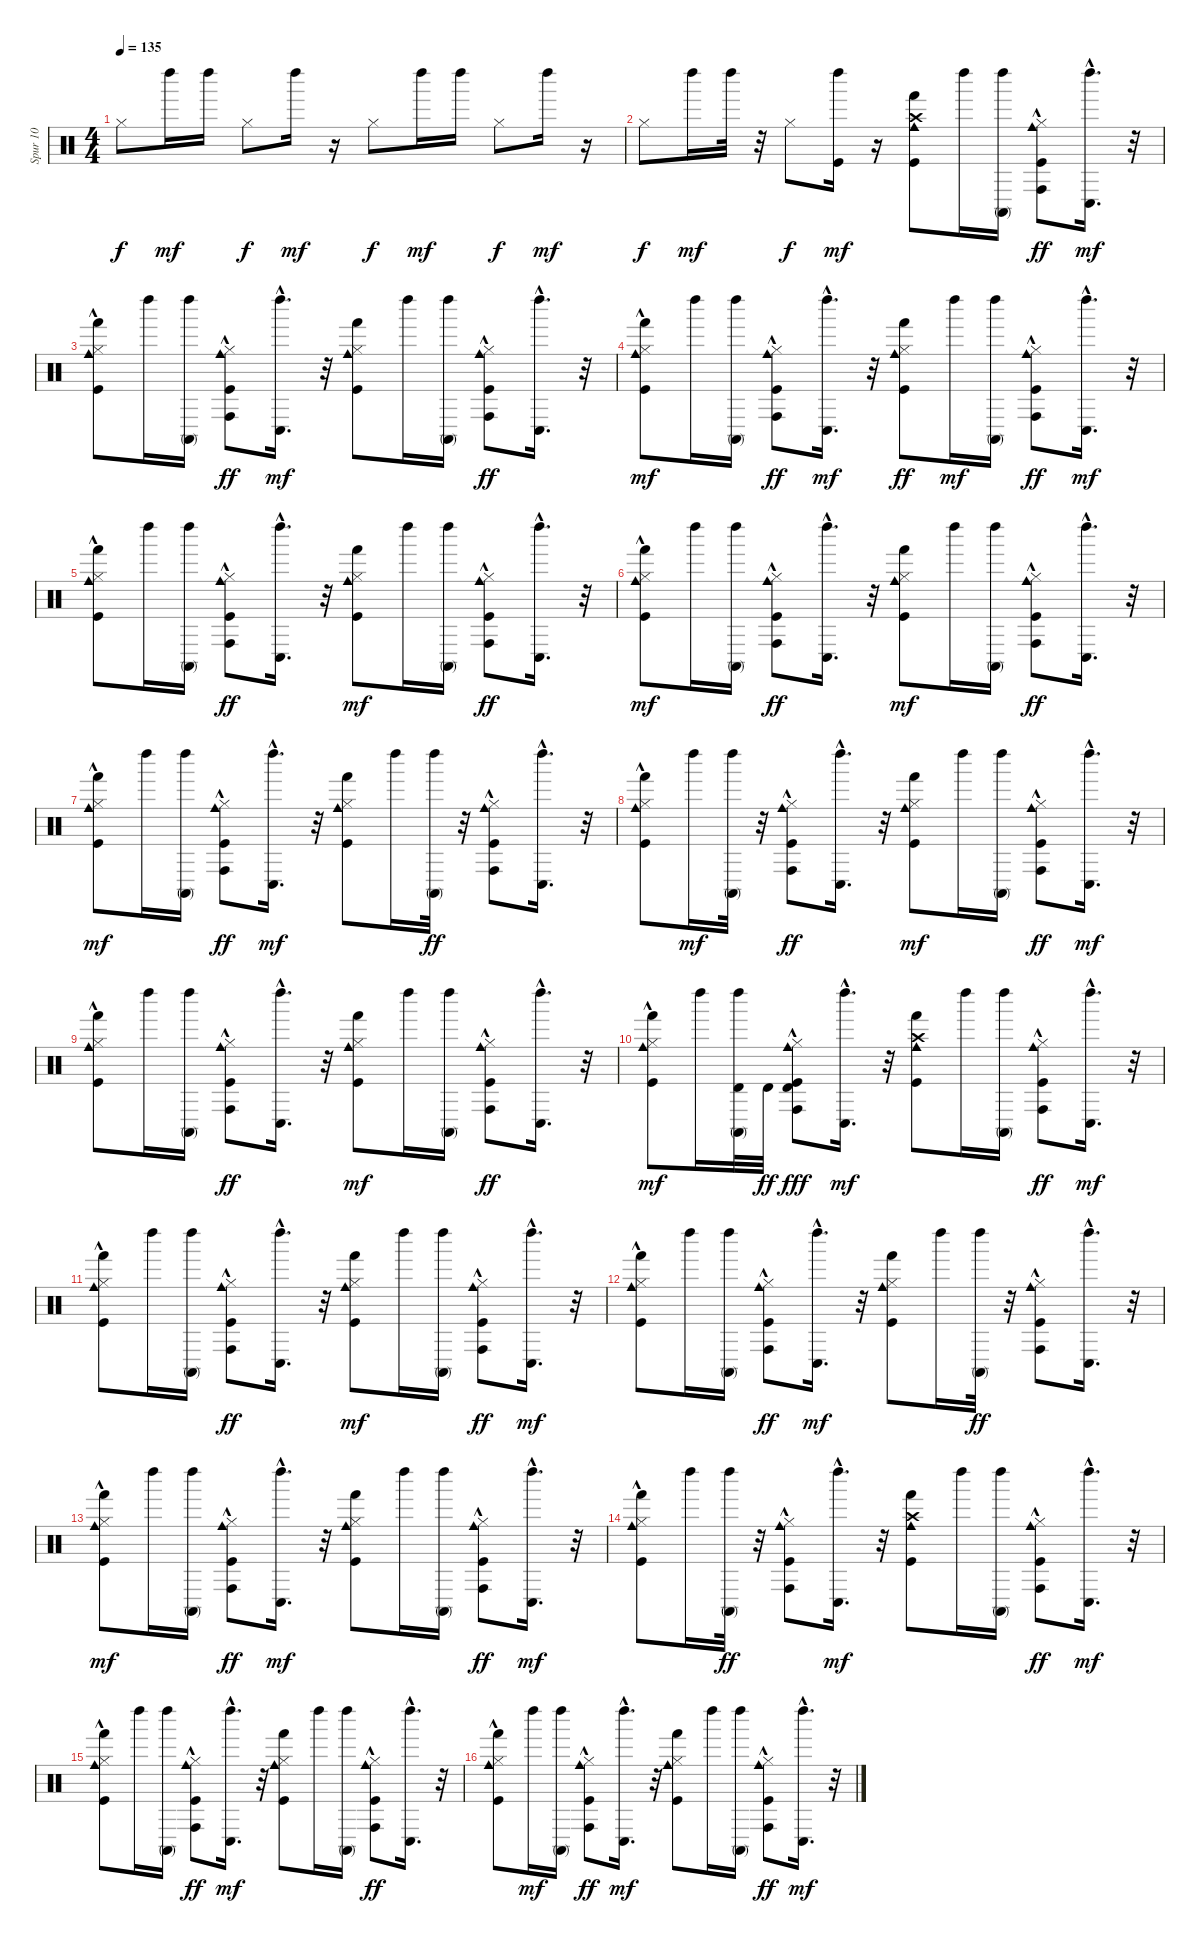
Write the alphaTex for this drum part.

\track ("Spur 10" "Spur 10") {instrument percussion}
\staff {score}
\articulation defaults
\ts (4 4)
\tempo 135
\clef neutral
\ks c "Hi-Hat (closed)".8{dy f} "Left Maraca (hit)".16{dy mf} "Left Maraca (hit)".16 "Hi-Hat (closed)".8{dy f} "Left Maraca (hit)".16{dy mf}
r.16 "Hi-Hat (closed)".8{dy f} "Left Maraca (hit)".16{dy mf} "Left Maraca (hit)".16 "Hi-Hat (closed)".8{dy f} "Left Maraca (hit)".16{dy mf} r.16 |
"Hi-Hat (closed)".8{dy f} "Left Maraca (hit)".16{dy mf} "Left Maraca (hit)".32 r.32 "Hi-Hat (closed)".8{dy f} ("Kick (hit)" "Left Maraca (hit)").16{dy mf} r.16 ("Kick (hit)" "Crash high (hit)" "Cowbell medium (hit)" "Hand (hit)").8 "Left Maraca (hit)".16 ("Conga high (mute)" "Left Maraca (hit)").16 ("Kick (hit)" "Hi-Hat (closed)" "Cowbell medium (hit)" "Conga high (hit)"{hac}).8{dy ff} ("Conga low (hit)"{hac} "Left Maraca (hit)").16{d dy mf} r.32 |
("Kick (hit)" "Hi-Hat (closed)" "Cowbell medium (hit)" "Hand (hit)"{hac}).8 "Left Maraca (hit)".16 ("Conga high (mute)" "Left Maraca (hit)").16 ("Hi-Hat (closed)" "Kick (hit)"{hac} "Cowbell medium (hit)" "Conga high (hit)"{hac}).8{dy ff} ("Conga low (hit)"{hac} "Left Maraca (hit)").16{d dy mf} r.32 ("Kick (hit)" "Hi-Hat (closed)" "Cowbell medium (hit)" "Hand (hit)").8 "Left Maraca (hit)".16 ("Conga high (mute)" "Left Maraca (hit)").16 ("Hi-Hat (closed)" "Cowbell medium (hit)" "Kick (hit)" "Conga high (hit)"{hac}).8{dy ff} ("Left Maraca (hit)" "Conga low (hit)"{hac}).16{d} r.32 |
("Kick (hit)" "Hi-Hat (closed)" "Cowbell medium (hit)" "Hand (hit)"{hac}).8{dy mf} "Left Maraca (hit)".16 ("Conga high (mute)" "Left Maraca (hit)").16 ("Kick (hit)"{hac} "Hi-Hat (closed)" "Cowbell medium (hit)" "Conga high (hit)"{hac}).8{dy ff} ("Conga low (hit)"{hac} "Left Maraca (hit)").16{d dy mf} r.32 ("Hi-Hat (closed)" "Cowbell medium (hit)" "Kick (hit)" "Hand (hit)").8{dy ff} "Left Maraca (hit)".16{dy mf} ("Conga high (mute)" "Left Maraca (hit)").16 ("Kick (hit)" "Hi-Hat (closed)" "Cowbell medium (hit)" "Conga high (hit)"{hac}).8{dy ff} ("Conga low (hit)"{hac} "Left Maraca (hit)").16{d dy mf} r.32 |
("Hi-Hat (closed)" "Kick (hit)" "Cowbell medium (hit)" "Hand (hit)"{hac}).8 "Left Maraca (hit)".16 ("Conga high (mute)" "Left Maraca (hit)").16 ("Kick (hit)"{hac} "Hi-Hat (closed)" "Cowbell medium (hit)" "Conga high (hit)"{hac}).8{dy ff} ("Left Maraca (hit)" "Conga low (hit)"{hac}).16{d} r.32 ("Kick (hit)" "Hi-Hat (closed)" "Cowbell medium (hit)" "Hand (hit)").8{dy mf} "Left Maraca (hit)".16 ("Conga high (mute)" "Left Maraca (hit)").16 ("Hi-Hat (closed)" "Kick (hit)" "Cowbell medium (hit)" "Conga high (hit)"{hac}).8{dy ff} ("Left Maraca (hit)" "Conga low (hit)"{hac}).16{d} r.32 |
("Kick (hit)" "Hi-Hat (closed)" "Cowbell medium (hit)" "Hand (hit)"{hac}).8{dy mf} "Left Maraca (hit)".16 ("Conga high (mute)" "Left Maraca (hit)").16 ("Hi-Hat (closed)" "Kick (hit)"{hac} "Cowbell medium (hit)" "Conga high (hit)"{hac}).8{dy ff} ("Left Maraca (hit)" "Conga low (hit)"{hac}).16{d} r.32 ("Hi-Hat (closed)" "Kick (hit)" "Cowbell medium (hit)" "Hand (hit)").8{dy mf} "Left Maraca (hit)".16 ("Conga high (mute)" "Left Maraca (hit)").16 ("Kick (hit)" "Hi-Hat (closed)" "Cowbell medium (hit)" "Conga high (hit)"{hac}).8{dy ff} ("Left Maraca (hit)" "Conga low (hit)"{hac}).16{d} r.32 |
("Kick (hit)" "Hi-Hat (closed)" "Cowbell medium (hit)" "Hand (hit)"{hac}).8{dy mf} "Left Maraca (hit)".16 ("Conga high (mute)" "Left Maraca (hit)").16 ("Hi-Hat (closed)" "Kick (hit)"{hac} "Cowbell medium (hit)" "Conga high (hit)"{hac}).8{dy ff} ("Conga low (hit)"{hac} "Left Maraca (hit)").16{d dy mf} r.32 ("Kick (hit)" "Hi-Hat (closed)" "Cowbell medium (hit)" "Hand (hit)").8 "Left Maraca (hit)".16 ("Left Maraca (hit)" "Conga high (mute)").32{dy ff} r.32 ("Hi-Hat (closed)" "Kick (hit)" "Cowbell medium (hit)" "Conga high (hit)"{hac}).8 ("Left Maraca (hit)" "Conga low (hit)"{hac}).16{d} r.32 |
("Hi-Hat (closed)" "Cowbell medium (hit)" "Kick (hit)" "Hand (hit)"{hac}).8 "Left Maraca (hit)".16{dy mf} ("Conga high (mute)" "Left Maraca (hit)").32 r.32 ("Kick (hit)"{hac} "Hi-Hat (closed)" "Cowbell medium (hit)" "Conga high (hit)"{hac}).8{dy ff} ("Left Maraca (hit)" "Conga low (hit)"{hac}).16{d} r.32 ("Kick (hit)" "Hi-Hat (closed)" "Cowbell medium (hit)" "Hand (hit)").8{dy mf} "Left Maraca (hit)".16 ("Conga high (mute)" "Left Maraca (hit)").16 ("Kick (hit)" "Hi-Hat (closed)" "Cowbell medium (hit)" "Conga high (hit)"{hac}).8{dy ff} ("Conga low (hit)"{hac} "Left Maraca (hit)").16{d dy mf} r.32 |
("Kick (hit)" "Hi-Hat (closed)" "Cowbell medium (hit)" "Hand (hit)"{hac}).8 "Left Maraca (hit)".16 ("Conga high (mute)" "Left Maraca (hit)").16 ("Kick (hit)"{hac} "Hi-Hat (closed)" "Cowbell medium (hit)" "Conga high (hit)"{hac}).8{dy ff} ("Left Maraca (hit)" "Conga low (hit)"{hac}).16{d} r.32 ("Kick (hit)" "Hi-Hat (closed)" "Cowbell medium (hit)" "Hand (hit)").8{dy mf} "Left Maraca (hit)".16 ("Conga high (mute)" "Left Maraca (hit)").16 ("Kick (hit)" "Hi-Hat (closed)" "Cowbell medium (hit)" "Conga high (hit)"{hac}).8{dy ff} ("Left Maraca (hit)" "Conga low (hit)"{hac}).16{d} r.32 |
("Kick (hit)" "Hi-Hat (closed)" "Cowbell medium (hit)" "Hand (hit)"{hac}).8{dy mf} "Left Maraca (hit)".16 ("Conga high (mute)" "Timbale high (hit)" "Left Maraca (hit)").32 "Timbale high (hit)".32{dy ff} ("Kick (hit)"{hac} "Hi-Hat (closed)" "Cowbell medium (hit)" "Conga high (hit)"{hac} "Timbale high (hit)").8{dy fff} ("Conga low (hit)"{hac} "Left Maraca (hit)").16{d dy mf} r.32 ("Kick (hit)" "Crash high (hit)" "Cowbell medium (hit)" "Hand (hit)").8 "Left Maraca (hit)".16 ("Conga high (mute)" "Left Maraca (hit)").16 ("Kick (hit)" "Hi-Hat (closed)" "Cowbell medium (hit)" "Conga high (hit)"{hac}).8{dy ff} ("Conga low (hit)"{hac} "Left Maraca (hit)").16{d dy mf} r.32 |
("Kick (hit)" "Hi-Hat (closed)" "Cowbell medium (hit)" "Hand (hit)"{hac}).8 "Left Maraca (hit)".16 ("Conga high (mute)" "Left Maraca (hit)").16 ("Kick (hit)"{hac} "Hi-Hat (closed)" "Cowbell medium (hit)" "Conga high (hit)"{hac}).8{dy ff} ("Left Maraca (hit)" "Conga low (hit)"{hac}).16{d} r.32 ("Kick (hit)" "Hi-Hat (closed)" "Cowbell medium (hit)" "Hand (hit)").8{dy mf} "Left Maraca (hit)".16 ("Conga high (mute)" "Left Maraca (hit)").16 ("Kick (hit)" "Hi-Hat (closed)" "Cowbell medium (hit)" "Conga high (hit)"{hac}).8{dy ff} ("Conga low (hit)"{hac} "Left Maraca (hit)").16{d dy mf} r.32 |
("Hi-Hat (closed)" "Kick (hit)" "Cowbell medium (hit)" "Hand (hit)"{hac}).8 "Left Maraca (hit)".16 ("Conga high (mute)" "Left Maraca (hit)").16 ("Kick (hit)"{hac} "Hi-Hat (closed)" "Cowbell medium (hit)" "Conga high (hit)"{hac}).8{dy ff} ("Conga low (hit)"{hac} "Left Maraca (hit)").16{d dy mf} r.32 ("Kick (hit)" "Hi-Hat (closed)" "Cowbell medium (hit)" "Hand (hit)").8 "Left Maraca (hit)".16 ("Left Maraca (hit)" "Conga high (mute)").32{dy ff} r.32 ("Kick (hit)" "Hi-Hat (closed)" "Cowbell medium (hit)" "Conga high (hit)"{hac}).8 ("Left Maraca (hit)" "Conga low (hit)"{hac}).16{d} r.32 |
("Kick (hit)" "Hi-Hat (closed)" "Cowbell medium (hit)" "Hand (hit)"{hac}).8{dy mf} "Left Maraca (hit)".16 ("Conga high (mute)" "Left Maraca (hit)").16 ("Kick (hit)"{hac} "Hi-Hat (closed)" "Cowbell medium (hit)" "Conga high (hit)"{hac}).8{dy ff} ("Conga low (hit)"{hac} "Left Maraca (hit)").16{d dy mf} r.32 ("Kick (hit)" "Hi-Hat (closed)" "Cowbell medium (hit)" "Hand (hit)").8 "Left Maraca (hit)".16 ("Conga high (mute)" "Left Maraca (hit)").16 ("Kick (hit)" "Hi-Hat (closed)" "Cowbell medium (hit)" "Conga high (hit)"{hac}).8{dy ff} ("Conga low (hit)"{hac} "Left Maraca (hit)").16{d dy mf} r.32 |
("Kick (hit)" "Hi-Hat (closed)" "Cowbell medium (hit)" "Hand (hit)"{hac}).8 "Left Maraca (hit)".16 ("Left Maraca (hit)" "Conga high (mute)").32{dy ff} r.32 ("Kick (hit)"{hac} "Hi-Hat (closed)" "Cowbell medium (hit)" "Conga high (hit)"{hac}).8 ("Conga low (hit)"{hac} "Left Maraca (hit)").16{d dy mf} r.32 ("Crash high (hit)" "Kick (hit)" "Cowbell medium (hit)" "Hand (hit)").8 "Left Maraca (hit)".16 ("Conga high (mute)" "Left Maraca (hit)").16 ("Kick (hit)" "Hi-Hat (closed)" "Cowbell medium (hit)" "Conga high (hit)"{hac}).8{dy ff} ("Conga low (hit)"{hac} "Left Maraca (hit)").16{d dy mf} r.32 |
("Kick (hit)" "Hi-Hat (closed)" "Cowbell medium (hit)" "Hand (hit)"{hac}).8 "Left Maraca (hit)".16 ("Conga high (mute)" "Left Maraca (hit)").16 ("Kick (hit)"{hac} "Hi-Hat (closed)" "Cowbell medium (hit)" "Conga high (hit)"{hac}).8{dy ff} ("Conga low (hit)"{hac} "Left Maraca (hit)").16{d dy mf} r.32 ("Kick (hit)" "Hi-Hat (closed)" "Cowbell medium (hit)" "Hand (hit)").8 "Left Maraca (hit)".16 ("Conga high (mute)" "Left Maraca (hit)").16 ("Hi-Hat (closed)" "Kick (hit)" "Cowbell medium (hit)" "Conga high (hit)"{hac}).8{dy ff} ("Left Maraca (hit)" "Conga low (hit)"{hac}).16{d} r.32 |
("Hi-Hat (closed)" "Cowbell medium (hit)" "Kick (hit)" "Hand (hit)"{hac}).8 "Left Maraca (hit)".16{dy mf} ("Conga high (mute)" "Left Maraca (hit)").16 ("Kick (hit)"{hac} "Hi-Hat (closed)" "Cowbell medium (hit)" "Conga high (hit)"{hac}).8{dy ff} ("Conga low (hit)"{hac} "Left Maraca (hit)").16{d dy mf} r.32 ("Kick (hit)" "Hi-Hat (closed)" "Cowbell medium (hit)" "Hand (hit)").8 "Left Maraca (hit)".16 ("Conga high (mute)" "Left Maraca (hit)").16 ("Hi-Hat (closed)" "Cowbell medium (hit)" "Kick (hit)" "Conga high (hit)"{hac}).8{dy ff} ("Conga low (hit)"{hac} "Left Maraca (hit)").16{d dy mf} r.32
